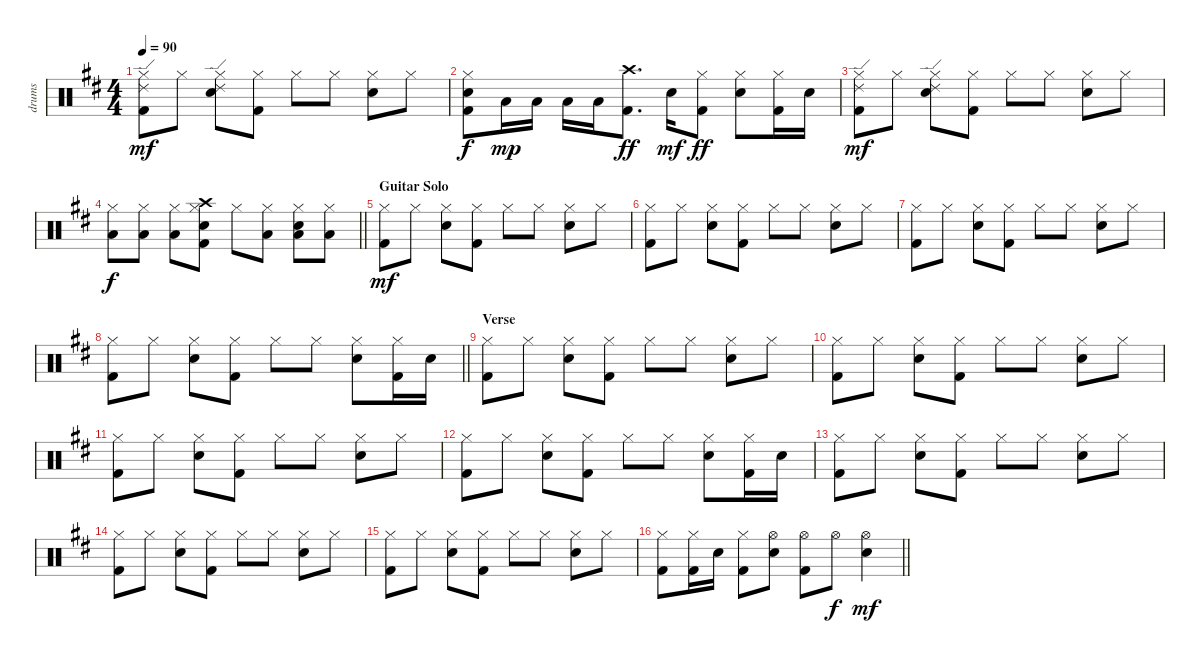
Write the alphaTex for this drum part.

\track ("drums" "drums") {instrument percussion}
\staff {score}
\articulation defaults
\ts (4 4)
\tempo 90
\clef neutral
\ks d
("Hi-Hat (closed)" "Ride (edge) 2" "Kick (hit) 2").8{dy mf} "Hi-Hat (closed)".8 ("Hi-Hat (closed)" "Ride (edge) 2" "Electric Snare (hit)").8 ("Hi-Hat (closed)" "Kick (hit) 2").8 "Hi-Hat (closed)".8 "Hi-Hat (closed)".8 ("Hi-Hat (closed)" "Snare (hit) 2").8 "Hi-Hat (closed)".8 |
("Hi-Hat (closed)" "Electric Snare (hit)" "Kick (hit) 2").8{dy f} "Low Tom (hit)".16{dy mp} "Low Tom (hit)".16 "Low Tom (hit)".16 "Low Tom (hit)".16 ("Crash high (hit)" "Kick (hit) 2").8{d dy ff} "Electric Snare (hit)".16{dy mf} ("Hi-Hat (closed)" "Kick (hit) 2").8{dy ff} ("Hi-Hat (closed)" "Electric Snare (hit)").8 ("Hi-Hat (closed)" "Kick (hit) 2").16 "Electric Snare (hit)".16 |
("Hi-Hat (closed)" "Ride (edge) 2" "Kick (hit) 2").8{dy mf} "Hi-Hat (closed)".8 ("Hi-Hat (closed)" "Ride (edge) 2" "Electric Snare (hit)").8 ("Hi-Hat (closed)" "Kick (hit) 2").8 "Hi-Hat (closed)".8 "Hi-Hat (closed)".8 ("Hi-Hat (closed)" "Snare (hit) 2").8 "Hi-Hat (closed)".8 |
\barLineRight lightlight
("Hi-Hat (closed)" "Low Floor Tom (hit)").8{dy f} ("Hi-Hat (closed)" "Low Floor Tom (hit)").8 ("Hi-Hat (closed)" "Low Floor Tom (hit)").8 ("Hi-Hat (closed)" "Crash high (hit)" "Electric Snare (hit)" "Kick (hit) 2").8 "Hi-Hat (closed)".8 ("Hi-Hat (closed)" "Low Floor Tom (hit)").8 ("Hi-Hat (closed)" "Electric Snare (hit)" "Low Floor Tom (hit)").8 ("Hi-Hat (closed)" "Low Floor Tom (hit)").8 |
\section ("" "Guitar Solo")
("Hi-Hat (closed)" "Kick (hit) 2").8{dy mf} "Hi-Hat (closed)".8 ("Hi-Hat (closed)" "Electric Snare (hit)").8 ("Hi-Hat (closed)" "Kick (hit) 2").8 "Hi-Hat (closed)".8 "Hi-Hat (closed)".8 ("Hi-Hat (closed)" "Snare (hit) 2").8 "Hi-Hat (closed)".8 |
("Hi-Hat (closed)" "Kick (hit) 2").8 "Hi-Hat (closed)".8 ("Hi-Hat (closed)" "Electric Snare (hit)").8 ("Hi-Hat (closed)" "Kick (hit) 2").8 "Hi-Hat (closed)".8 "Hi-Hat (closed)".8 ("Hi-Hat (closed)" "Snare (hit) 2").8 "Hi-Hat (closed)".8 |
("Hi-Hat (closed)" "Kick (hit) 2").8 "Hi-Hat (closed)".8 ("Hi-Hat (closed)" "Electric Snare (hit)").8 ("Hi-Hat (closed)" "Kick (hit) 2").8 "Hi-Hat (closed)".8 "Hi-Hat (closed)".8 ("Hi-Hat (closed)" "Snare (hit) 2").8 "Hi-Hat (closed)".8 |
\barLineRight lightlight
("Hi-Hat (closed)" "Kick (hit) 2").8 "Hi-Hat (closed)".8 ("Hi-Hat (closed)" "Electric Snare (hit)").8 ("Hi-Hat (closed)" "Kick (hit) 2").8 "Hi-Hat (closed)".8 "Hi-Hat (closed)".8 ("Hi-Hat (closed)" "Snare (hit) 2").8 ("Hi-Hat (closed)" "Kick (hit) 2").16 "Snare (hit) 2".16 |
\section ("" "Verse")
("Hi-Hat (closed)" "Kick (hit) 2").8 "Hi-Hat (closed)".8 ("Hi-Hat (closed)" "Electric Snare (hit)").8 ("Hi-Hat (closed)" "Kick (hit) 2").8 "Hi-Hat (closed)".8 "Hi-Hat (closed)".8 ("Hi-Hat (closed)" "Snare (hit) 2").8 "Hi-Hat (closed)".8 |
("Hi-Hat (closed)" "Kick (hit) 2").8 "Hi-Hat (closed)".8 ("Hi-Hat (closed)" "Electric Snare (hit)").8 ("Hi-Hat (closed)" "Kick (hit) 2").8 "Hi-Hat (closed)".8 "Hi-Hat (closed)".8 ("Hi-Hat (closed)" "Snare (hit) 2").8 "Hi-Hat (closed)".8 |
("Hi-Hat (closed)" "Kick (hit) 2").8 "Hi-Hat (closed)".8 ("Hi-Hat (closed)" "Electric Snare (hit)").8 ("Hi-Hat (closed)" "Kick (hit) 2").8 "Hi-Hat (closed)".8 "Hi-Hat (closed)".8 ("Hi-Hat (closed)" "Snare (hit) 2").8 "Hi-Hat (closed)".8 |
("Hi-Hat (closed)" "Kick (hit) 2").8 "Hi-Hat (closed)".8 ("Hi-Hat (closed)" "Electric Snare (hit)").8 ("Hi-Hat (closed)" "Kick (hit) 2").8 "Hi-Hat (closed)".8 "Hi-Hat (closed)".8 ("Hi-Hat (closed)" "Snare (hit) 2").8 ("Hi-Hat (closed)" "Kick (hit) 2").16 "Snare (hit) 2".16 |
("Hi-Hat (closed)" "Kick (hit) 2").8 "Hi-Hat (closed)".8 ("Hi-Hat (closed)" "Electric Snare (hit)").8 ("Hi-Hat (closed)" "Kick (hit) 2").8 "Hi-Hat (closed)".8 "Hi-Hat (closed)".8 ("Hi-Hat (closed)" "Snare (hit) 2").8 "Hi-Hat (closed)".8 |
("Hi-Hat (closed)" "Kick (hit) 2").8 "Hi-Hat (closed)".8 ("Hi-Hat (closed)" "Electric Snare (hit)").8 ("Hi-Hat (closed)" "Kick (hit) 2").8 "Hi-Hat (closed)".8 "Hi-Hat (closed)".8 ("Hi-Hat (closed)" "Snare (hit) 2").8 "Hi-Hat (closed)".8 |
("Hi-Hat (closed)" "Kick (hit) 2").8 "Hi-Hat (closed)".8 ("Hi-Hat (closed)" "Electric Snare (hit)").8 ("Hi-Hat (closed)" "Kick (hit) 2").8 "Hi-Hat (closed)".8 "Hi-Hat (closed)".8 ("Hi-Hat (closed)" "Snare (hit) 2").8 "Hi-Hat (closed)".8 |
\barLineRight lightlight
("Hi-Hat (closed)" "Kick (hit) 2").8 ("Hi-Hat (closed)" "Kick (hit) 2").16 "Electric Snare (hit)".16 ("Hi-Hat (closed)" "Kick (hit) 2").8 ("Hi-Hat (open)" "Snare (hit) 2").8 ("Hi-Hat (open)" "Kick (hit) 2").8 "Hi-Hat (open)".8{dy f} ("Hi-Hat (open)" "Snare (hit) 2").4{dy mf}
